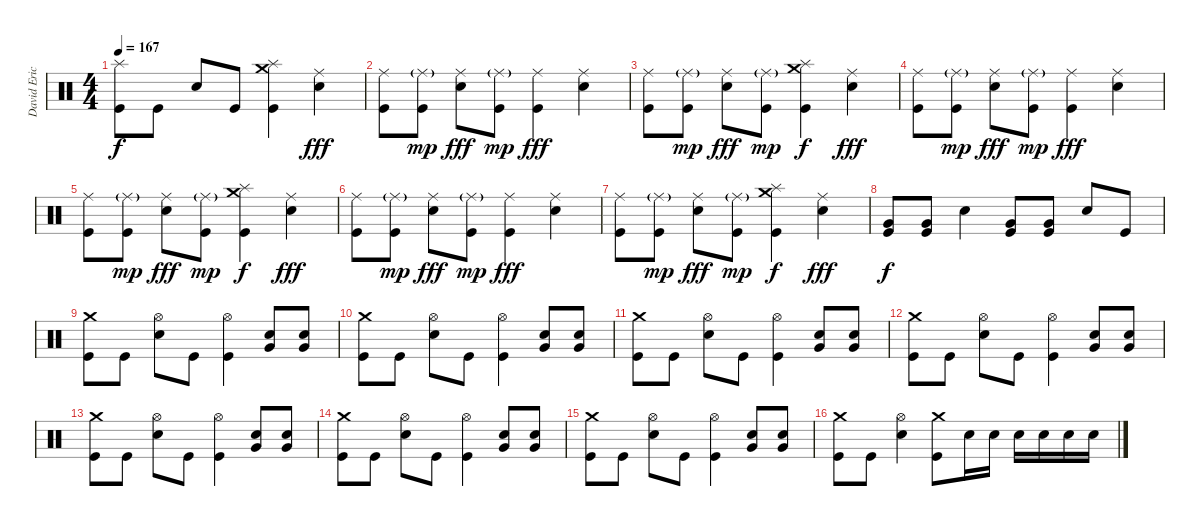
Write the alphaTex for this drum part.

\track ("David Eric Grohl" "David Eric") {instrument percussion}
\staff {score}
\articulation defaults
\ts (4 4)
\tempo 167
\clef neutral
\ks c
("Splash (hit)" "Kick (hit)").8{dy f} "Kick (hit)".8 "Snare (hit) 2".8 "Kick (hit)".8 ("Splash (hit)" "Crash medium (hit)" "Kick (hit)").4 ("Ride (middle)" "Snare (hit) 2").4{dy fff} |
("Ride (middle)" "Kick (hit)").8 ("Ride (middle)"{g} "Kick (hit)").8{dy mp} ("Ride (middle)" "Snare (hit) 2").8{dy fff} ("Ride (middle)"{g} "Kick (hit)").8{dy mp} ("Ride (middle)" "Kick (hit)").4{dy fff} ("Ride (middle)" "Snare (hit) 2").4 |
("Ride (middle)" "Kick (hit)").8 ("Ride (middle)"{g} "Kick (hit)").8{dy mp} ("Ride (middle)" "Snare (hit) 2").8{dy fff} ("Ride (middle)"{g} "Kick (hit)").8{dy mp} ("Splash (hit)" "Crash medium (hit)" "Kick (hit)").4{dy f} ("Ride (middle)" "Snare (hit) 2").4{dy fff} |
("Ride (middle)" "Kick (hit)").8 ("Ride (middle)"{g} "Kick (hit)").8{dy mp} ("Ride (middle)" "Snare (hit) 2").8{dy fff} ("Ride (middle)"{g} "Kick (hit)").8{dy mp} ("Ride (middle)" "Kick (hit)").4{dy fff} ("Ride (middle)" "Snare (hit) 2").4 |
("Ride (middle)" "Kick (hit)").8 ("Ride (middle)"{g} "Kick (hit)").8{dy mp} ("Ride (middle)" "Snare (hit) 2").8{dy fff} ("Ride (middle)"{g} "Kick (hit)").8{dy mp} ("Splash (hit)" "Crash medium (hit)" "Kick (hit)").4{dy f} ("Ride (middle)" "Snare (hit) 2").4{dy fff} |
("Ride (middle)" "Kick (hit)").8 ("Ride (middle)"{g} "Kick (hit)").8{dy mp} ("Ride (middle)" "Snare (hit) 2").8{dy fff} ("Ride (middle)"{g} "Kick (hit)").8{dy mp} ("Ride (middle)" "Kick (hit)").4{dy fff} ("Ride (middle)" "Snare (hit) 2").4 |
("Ride (middle)" "Kick (hit)").8 ("Ride (middle)"{g} "Kick (hit)").8{dy mp} ("Ride (middle)" "Snare (hit) 2").8{dy fff} ("Ride (middle)"{g} "Kick (hit)").8{dy mp} ("Splash (hit)" "Crash medium (hit)" "Kick (hit)").4{dy f} ("Ride (middle)" "Snare (hit) 2").4{dy fff} |
("Very Low Tom (hit)" "Kick (hit)").8{dy f} ("Very Low Tom (hit)" "Kick (hit)").8 "Snare (hit) 2".4 ("Very Low Tom (hit)" "Kick (hit)").8 ("Very Low Tom (hit)" "Kick (hit)").8 "Snare (hit) 2".8 "Kick (hit)".8 |
("Crash medium (hit)" "Kick (hit)").8 "Kick (hit)".8 ("Hi-Hat (open)" "Snare (hit) 2").8 "Kick (hit)".8 ("Hi-Hat (open)" "Kick (hit)").4 ("Snare (hit) 2" "Very Low Tom (hit)").8 ("Snare (hit) 2" "Very Low Tom (hit)").8 |
("Crash medium (hit)" "Kick (hit)").8 "Kick (hit)".8 ("Hi-Hat (open)" "Snare (hit) 2").8 "Kick (hit)".8 ("Hi-Hat (open)" "Kick (hit)").4 ("Snare (hit) 2" "Very Low Tom (hit)").8 ("Snare (hit) 2" "Very Low Tom (hit)").8 |
("Crash medium (hit)" "Kick (hit)").8 "Kick (hit)".8 ("Hi-Hat (open)" "Snare (hit) 2").8 "Kick (hit)".8 ("Hi-Hat (open)" "Kick (hit)").4 ("Snare (hit) 2" "Very Low Tom (hit)").8 ("Snare (hit) 2" "Very Low Tom (hit)").8 |
("Crash medium (hit)" "Kick (hit)").8 "Kick (hit)".8 ("Hi-Hat (open)" "Snare (hit) 2").8 "Kick (hit)".8 ("Hi-Hat (open)" "Kick (hit)").4 ("Snare (hit) 2" "Very Low Tom (hit)").8 ("Snare (hit) 2" "Very Low Tom (hit)").8 |
("Crash medium (hit)" "Kick (hit)").8 "Kick (hit)".8 ("Hi-Hat (open)" "Snare (hit) 2").8 "Kick (hit)".8 ("Hi-Hat (open)" "Kick (hit)").4 ("Snare (hit) 2" "Very Low Tom (hit)").8 ("Snare (hit) 2" "Very Low Tom (hit)").8 |
("Crash medium (hit)" "Kick (hit)").8 "Kick (hit)".8 ("Hi-Hat (open)" "Snare (hit) 2").8 "Kick (hit)".8 ("Hi-Hat (open)" "Kick (hit)").4 ("Snare (hit) 2" "Very Low Tom (hit)").8 ("Snare (hit) 2" "Very Low Tom (hit)").8 |
("Crash medium (hit)" "Kick (hit)").8 "Kick (hit)".8 ("Hi-Hat (open)" "Snare (hit) 2").8 "Kick (hit)".8 ("Hi-Hat (open)" "Kick (hit)").4 ("Snare (hit) 2" "Very Low Tom (hit)").8 ("Snare (hit) 2" "Very Low Tom (hit)").8 |
("Crash medium (hit)" "Kick (hit)").8 "Kick (hit)".8 ("Hi-Hat (open)" "Snare (hit) 2").4 ("Crash medium (hit)" "Kick (hit)").8 "Snare (hit) 2".16 "Snare (hit) 2".16 "Snare (hit) 2".16 "Snare (hit) 2".16 "Snare (hit) 2".16 "Snare (hit) 2".16
